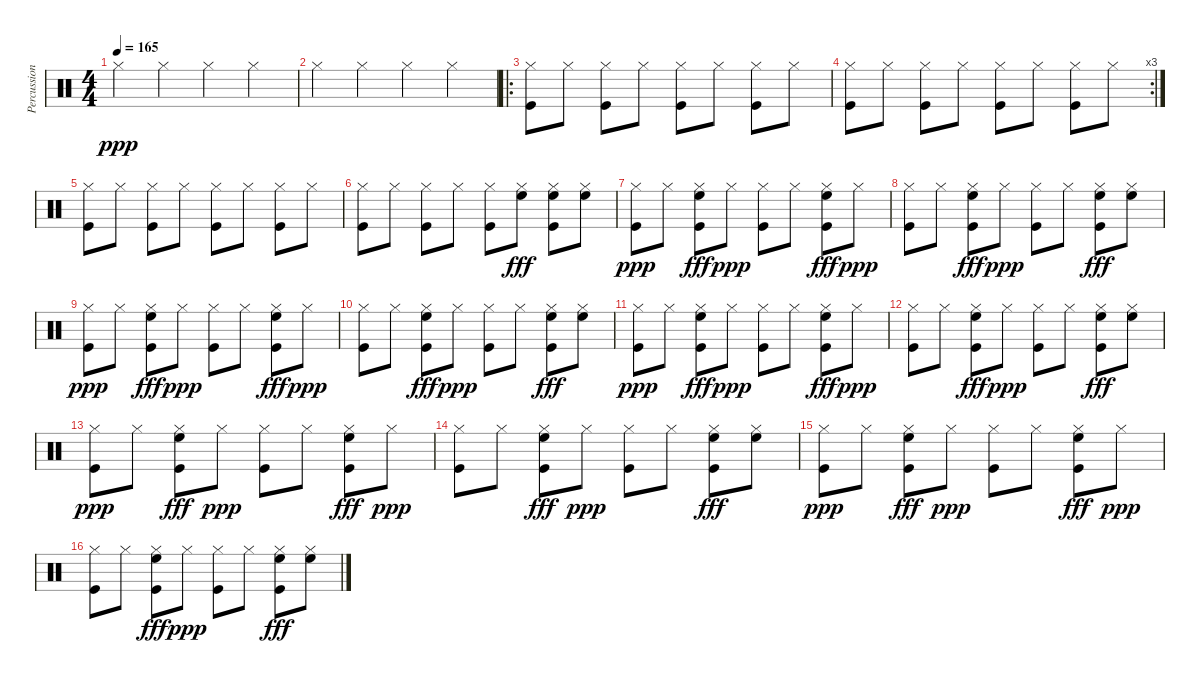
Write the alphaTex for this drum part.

\track ("Percussions" "Percussion") {instrument percussion}
\staff {score}
\articulation defaults
\ts (4 4)
\tempo 165
\clef neutral
\ks c "Hi-Hat (closed)".4{dy ppp} "Hi-Hat (closed)".4 "Hi-Hat (closed)".4 "Hi-Hat (closed)".4
|
"Hi-Hat (closed)".4 "Hi-Hat (closed)".4 "Hi-Hat (closed)".4 "Hi-Hat (closed)".4 |
\ro
("Kick (hit)" "Hi-Hat (closed)").8 "Hi-Hat (closed)".8 ("Kick (hit)" "Hi-Hat (closed)").8 "Hi-Hat (closed)".8 ("Kick (hit)" "Hi-Hat (closed)").8 "Hi-Hat (closed)".8 ("Kick (hit)" "Hi-Hat (closed)").8 "Hi-Hat (closed)".8 |
\rc 3
("Kick (hit)" "Hi-Hat (closed)").8 "Hi-Hat (closed)".8 ("Kick (hit)" "Hi-Hat (closed)").8 "Hi-Hat (closed)".8 ("Kick (hit)" "Hi-Hat (closed)").8 "Hi-Hat (closed)".8 ("Kick (hit)" "Hi-Hat (closed)").8 "Hi-Hat (closed)".8 |
("Kick (hit)" "Hi-Hat (closed)").8 "Hi-Hat (closed)".8 ("Kick (hit)" "Hi-Hat (closed)").8 "Hi-Hat (closed)".8 ("Kick (hit)" "Hi-Hat (closed)").8 "Hi-Hat (closed)".8 ("Kick (hit)" "Hi-Hat (closed)").8 "Hi-Hat (closed)".8 |
("Kick (hit)" "Hi-Hat (closed)").8 "Hi-Hat (closed)".8 ("Kick (hit)" "Hi-Hat (closed)").8 "Hi-Hat (closed)".8 ("Kick (hit)" "Hi-Hat (closed)").8 ("Hi-Hat (closed)" "High Floor Tom (hit)").8{dy fff} ("Kick (hit)" "Hi-Hat (closed)" "High Floor Tom (hit)").8 ("Hi-Hat (closed)" "High Floor Tom (hit)").8 |
("Kick (hit)" "Hi-Hat (closed)").8{dy ppp} "Hi-Hat (closed)".8 ("Kick (hit)" "Hi-Hat (closed)" "High Floor Tom (hit)").8{dy fff} "Hi-Hat (closed)".8{dy ppp} ("Kick (hit)" "Hi-Hat (closed)").8 "Hi-Hat (closed)".8 ("Kick (hit)" "Hi-Hat (closed)" "High Floor Tom (hit)").8{dy fff} "Hi-Hat (closed)".8{dy ppp} |
("Kick (hit)" "Hi-Hat (closed)").8 "Hi-Hat (closed)".8 ("Kick (hit)" "Hi-Hat (closed)" "High Floor Tom (hit)").8{dy fff} "Hi-Hat (closed)".8{dy ppp} ("Kick (hit)" "Hi-Hat (closed)").8 "Hi-Hat (closed)".8 ("Kick (hit)" "Hi-Hat (closed)" "High Floor Tom (hit)").8{dy fff} ("Hi-Hat (closed)" "High Floor Tom (hit)").8 |
("Kick (hit)" "Hi-Hat (closed)").8{dy ppp} "Hi-Hat (closed)".8 ("Kick (hit)" "Hi-Hat (closed)" "High Floor Tom (hit)").8{dy fff} "Hi-Hat (closed)".8{dy ppp} ("Kick (hit)" "Hi-Hat (closed)").8 "Hi-Hat (closed)".8 ("Kick (hit)" "Hi-Hat (closed)" "High Floor Tom (hit)").8{dy fff} "Hi-Hat (closed)".8{dy ppp} |
("Kick (hit)" "Hi-Hat (closed)").8 "Hi-Hat (closed)".8 ("Kick (hit)" "Hi-Hat (closed)" "High Floor Tom (hit)").8{dy fff} "Hi-Hat (closed)".8{dy ppp} ("Kick (hit)" "Hi-Hat (closed)").8 "Hi-Hat (closed)".8 ("Kick (hit)" "Hi-Hat (closed)" "High Floor Tom (hit)").8{dy fff} ("Hi-Hat (closed)" "High Floor Tom (hit)").8 |
("Kick (hit)" "Hi-Hat (closed)").8{dy ppp} "Hi-Hat (closed)".8 ("Kick (hit)" "Hi-Hat (closed)" "High Floor Tom (hit)").8{dy fff} "Hi-Hat (closed)".8{dy ppp} ("Kick (hit)" "Hi-Hat (closed)").8 "Hi-Hat (closed)".8 ("Kick (hit)" "Hi-Hat (closed)" "High Floor Tom (hit)").8{dy fff} "Hi-Hat (closed)".8{dy ppp} |
("Kick (hit)" "Hi-Hat (closed)").8 "Hi-Hat (closed)".8 ("Kick (hit)" "Hi-Hat (closed)" "High Floor Tom (hit)").8{dy fff} "Hi-Hat (closed)".8{dy ppp} ("Kick (hit)" "Hi-Hat (closed)").8 "Hi-Hat (closed)".8 ("Kick (hit)" "Hi-Hat (closed)" "High Floor Tom (hit)").8{dy fff} ("Hi-Hat (closed)" "High Floor Tom (hit)").8 |
("Kick (hit)" "Hi-Hat (closed)").8{dy ppp} "Hi-Hat (closed)".8 ("Kick (hit)" "Hi-Hat (closed)" "High Floor Tom (hit)").8{dy fff} "Hi-Hat (closed)".8{dy ppp} ("Kick (hit)" "Hi-Hat (closed)").8 "Hi-Hat (closed)".8 ("Kick (hit)" "Hi-Hat (closed)" "High Floor Tom (hit)").8{dy fff} "Hi-Hat (closed)".8{dy ppp} |
("Kick (hit)" "Hi-Hat (closed)").8 "Hi-Hat (closed)".8 ("Kick (hit)" "Hi-Hat (closed)" "High Floor Tom (hit)").8{dy fff} "Hi-Hat (closed)".8{dy ppp} ("Kick (hit)" "Hi-Hat (closed)").8 "Hi-Hat (closed)".8 ("Kick (hit)" "Hi-Hat (closed)" "High Floor Tom (hit)").8{dy fff} ("Hi-Hat (closed)" "High Floor Tom (hit)").8 |
("Kick (hit)" "Hi-Hat (closed)").8{dy ppp} "Hi-Hat (closed)".8 ("Kick (hit)" "Hi-Hat (closed)" "High Floor Tom (hit)").8{dy fff} "Hi-Hat (closed)".8{dy ppp} ("Kick (hit)" "Hi-Hat (closed)").8 "Hi-Hat (closed)".8 ("Kick (hit)" "Hi-Hat (closed)" "High Floor Tom (hit)").8{dy fff} "Hi-Hat (closed)".8{dy ppp} |
("Kick (hit)" "Hi-Hat (closed)").8 "Hi-Hat (closed)".8 ("Kick (hit)" "Hi-Hat (closed)" "High Floor Tom (hit)").8{dy fff} "Hi-Hat (closed)".8{dy ppp} ("Kick (hit)" "Hi-Hat (closed)").8 "Hi-Hat (closed)".8 ("Kick (hit)" "Hi-Hat (closed)" "High Floor Tom (hit)").8{dy fff} ("Hi-Hat (closed)" "High Floor Tom (hit)").8
